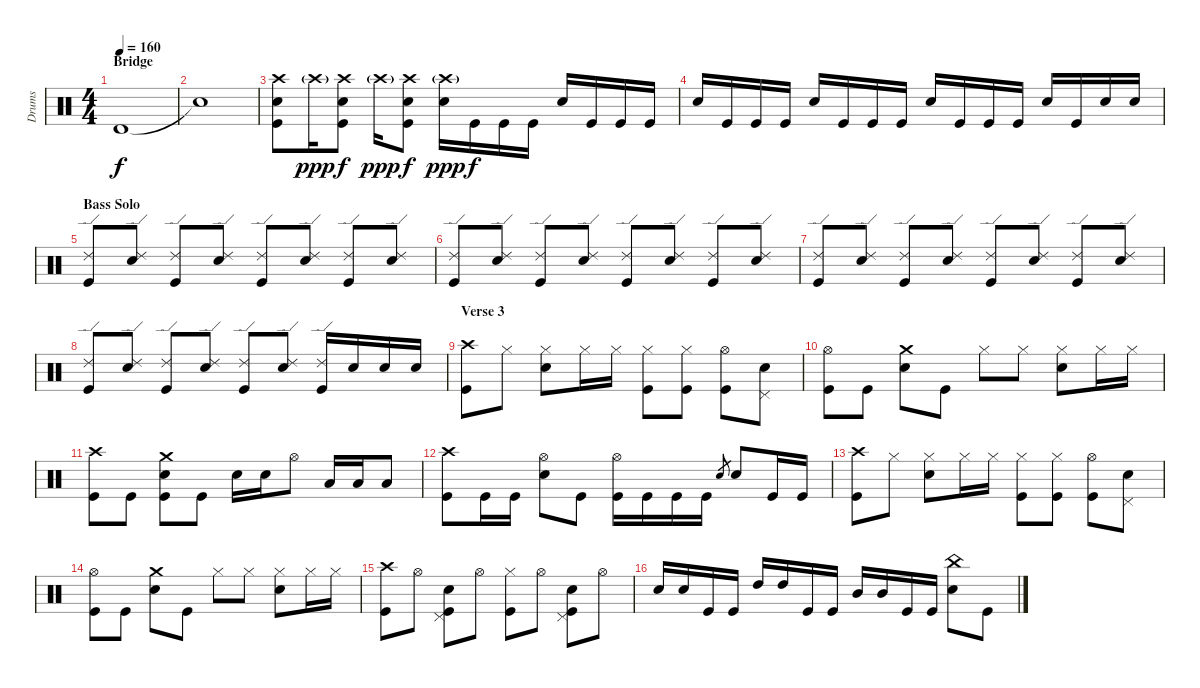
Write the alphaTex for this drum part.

\track ("Drums" "Drums") {instrument percussion}
\staff {score}
\articulation defaults
\ts (4 4)
\section ("" "Bridge")
\tempo 160
\clef neutral
\ks c "Timbale high (hit)".1{dy f}
|
"Snare (hit)"{t}.1 |
("Crash high (hit)" "Electric Snare (hit)" "Kick (hit)").8 "Crash high (hit)"{g}.16{dy ppp} ("Crash high (hit)" "Electric Snare (hit)" "Kick (hit)").8{dy f} "Crash high (hit)"{g}.16{dy ppp} ("Crash high (hit)" "Electric Snare (hit)" "Kick (hit)").8{dy f} ("Crash high (hit)"{g} "Electric Snare (hit)").16{dy ppp} "Kick (hit)".16{dy f} "Kick (hit)".16 "Kick (hit)".16 "Electric Snare (hit)".16 "Kick (hit)".16 "Kick (hit)".16 "Kick (hit)".16 |
"Electric Snare (hit)".16 "Kick (hit)".16 "Kick (hit)".16 "Kick (hit)".16 "Electric Snare (hit)".16 "Kick (hit)".16 "Kick (hit)".16 "Kick (hit)".16 "Electric Snare (hit)".16 "Kick (hit)".16 "Kick (hit)".16 "Kick (hit)".16 "Electric Snare (hit)".16 "Kick (hit)".16 "Electric Snare (hit)".16 "Electric Snare (hit)".16 |
\section ("" "Bass Solo")
("Ride (edge) 2" "Kick (hit)").8 ("Ride (edge) 2" "Electric Snare (hit)").8 ("Ride (edge) 2" "Kick (hit)").8 ("Ride (edge) 2" "Electric Snare (hit)").8 ("Ride (edge) 2" "Kick (hit)").8 ("Ride (edge) 2" "Electric Snare (hit)").8 ("Ride (edge) 2" "Kick (hit)").8 ("Ride (edge) 2" "Electric Snare (hit)").8 |
("Ride (edge) 2" "Kick (hit)").8 ("Ride (edge) 2" "Electric Snare (hit)").8 ("Ride (edge) 2" "Kick (hit)").8 ("Ride (edge) 2" "Electric Snare (hit)").8 ("Ride (edge) 2" "Kick (hit)").8 ("Ride (edge) 2" "Electric Snare (hit)").8 ("Ride (edge) 2" "Kick (hit)").8 ("Ride (edge) 2" "Electric Snare (hit)").8 |
("Ride (edge) 2" "Kick (hit)").8 ("Ride (edge) 2" "Electric Snare (hit)").8 ("Ride (edge) 2" "Kick (hit)").8 ("Ride (edge) 2" "Electric Snare (hit)").8 ("Ride (edge) 2" "Kick (hit)").8 ("Ride (edge) 2" "Electric Snare (hit)").8 ("Ride (edge) 2" "Kick (hit)").8 ("Ride (edge) 2" "Electric Snare (hit)").8 |
("Ride (edge) 2" "Kick (hit)").8 ("Ride (edge) 2" "Electric Snare (hit)").8 ("Ride (edge) 2" "Kick (hit)").8 ("Ride (edge) 2" "Electric Snare (hit)").8 ("Ride (edge) 2" "Kick (hit)").8 ("Ride (edge) 2" "Electric Snare (hit)").8 ("Ride (edge) 2" "Kick (hit)").16 "Electric Snare (hit)".16 "Electric Snare (hit)".16 "Electric Snare (hit)".16 |
\section ("" "Verse 3")
("Crash high (hit)" "Kick (hit)").8 "Hi-Hat (closed)".8 ("Hi-Hat (closed)" "Electric Snare (hit)").8 "Hi-Hat (closed)".16 "Hi-Hat (closed)".16 ("Hi-Hat (closed)" "Kick (hit)").8 ("Hi-Hat (closed)" "Kick (hit)").8 ("Hi-Hat (open)" "Kick (hit)").8 ("Electric Snare (hit)" "Pedal Hi-Hat (hit)").8 |
("Hi-Hat (open)" "Kick (hit)").8 "Kick (hit)".8 ("Crash medium (hit)" "Electric Snare (hit)").8 "Kick (hit)".8 "Hi-Hat (closed)".8 "Hi-Hat (closed)".8 ("Hi-Hat (closed)" "Electric Snare (hit)").8 "Hi-Hat (closed)".16 "Hi-Hat (closed)".16 |
("Crash high (hit)" "Kick (hit)").8 "Kick (hit)".8 ("Crash medium (hit)" "Electric Snare (hit)" "Kick (hit)").8 "Kick (hit)".8 "Electric Snare (hit)".16 "Electric Snare (hit)".16 "Hi-Hat (open)".8 "Low Tom (hit)".16 "Low Tom (hit)".16 "Low Tom (hit)".8 |
("Crash high (hit)" "Kick (hit)").8 "Kick (hit)".16 "Kick (hit)".16 ("Hi-Hat (open)" "Electric Snare (hit)").8 "Kick (hit)".8 ("Hi-Hat (open)" "Kick (hit)").16 "Kick (hit)".16 "Kick (hit)".16 "Kick (hit)".16 "Electric Snare (hit)".8{gr} "Electric Snare (hit)".8 "Kick (hit)".16 "Kick (hit)".16 |
("Crash high (hit)" "Kick (hit)").8 "Hi-Hat (closed)".8 ("Hi-Hat (closed)" "Electric Snare (hit)").8 "Hi-Hat (closed)".16 "Hi-Hat (closed)".16 ("Hi-Hat (closed)" "Kick (hit)").8 ("Hi-Hat (closed)" "Kick (hit)").8 ("Hi-Hat (open)" "Kick (hit)").8 ("Electric Snare (hit)" "Pedal Hi-Hat (hit)").8 |
("Hi-Hat (open)" "Kick (hit)").8 "Kick (hit)".8 ("Crash medium (hit)" "Electric Snare (hit)").8 "Kick (hit)".8 "Hi-Hat (closed)".8 "Hi-Hat (closed)".8 ("Hi-Hat (closed)" "Electric Snare (hit)").8 "Hi-Hat (closed)".16 "Hi-Hat (closed)".16 |
("Crash high (hit)" "Kick (hit)").8 "Hi-Hat (open)".8 ("Electric Snare (hit)" "Kick (hit)" "Pedal Hi-Hat (hit)").8 "Hi-Hat (open)".8 ("Hi-Hat (closed)" "Kick (hit)").8 "Hi-Hat (open)".8 ("Electric Snare (hit)" "Kick (hit)" "Pedal Hi-Hat (hit)").8 "Hi-Hat (open)".8 |
"Electric Snare (hit)".16 "Electric Snare (hit)".16 "Kick (hit)".16 "Kick (hit)".16 "High Tom (hit)".16 "High Tom (hit)".16 "Kick (hit)".16 "Kick (hit)".16 "Mid Tom (hit)".16 "Mid Tom (hit)".16 "Kick (hit)".16 "Kick (hit)".16 ("China (hit)" "Electric Snare (hit)").8 "Kick (hit)".8
